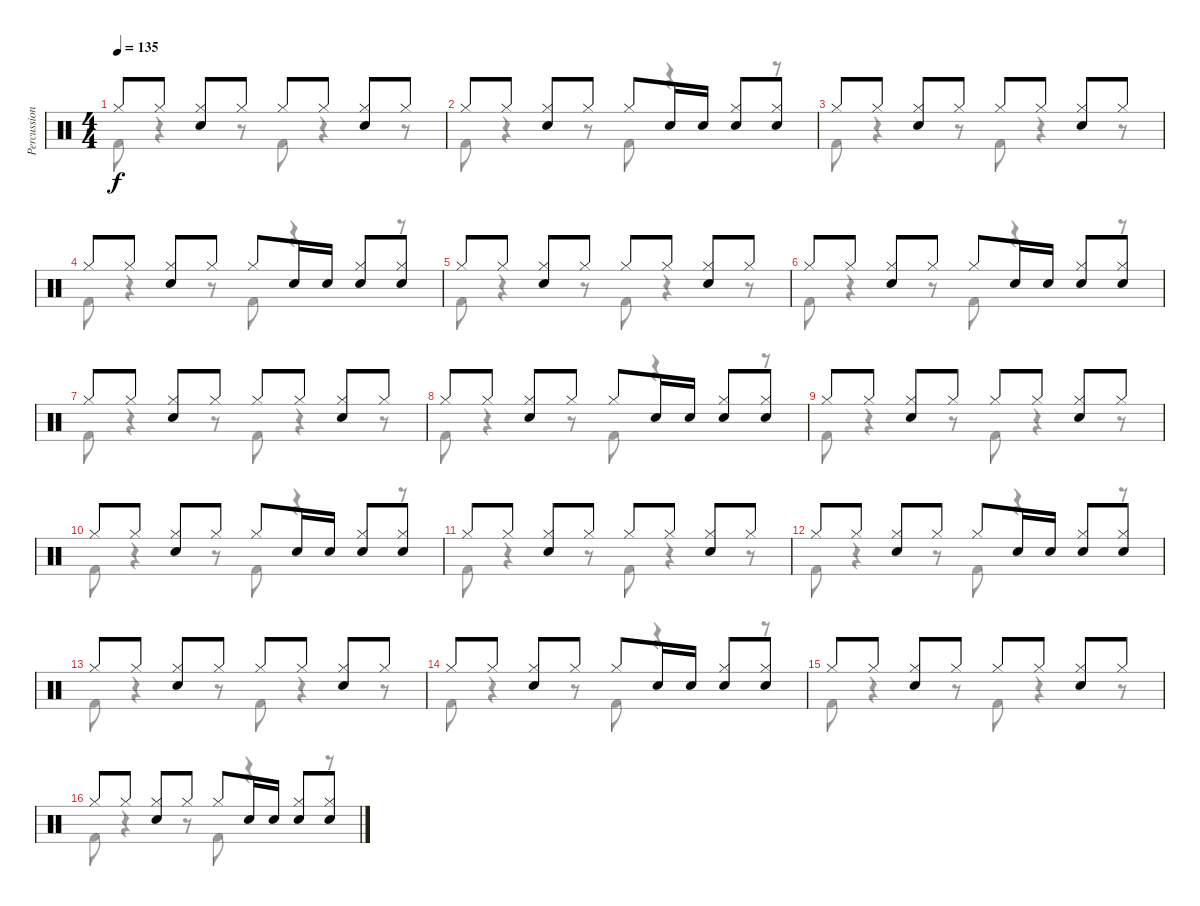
\track ("Percussion" "Percussion") {instrument percussion}
\staff {score}
\articulation defaults
\voice
\ts (4 4)
\tempo 135
\clef neutral
\ks c "Hi-Hat (closed)".8{dy f} "Hi-Hat (closed)".8
("Hi-Hat (closed)" "Snare (hit) 2").8 "Hi-Hat (closed)".8 "Hi-Hat (closed)".8 "Hi-Hat (closed)".8 ("Hi-Hat (closed)" "Snare (hit) 2").8 "Hi-Hat (closed)".8 |
"Hi-Hat (closed)".8 "Hi-Hat (closed)".8 ("Hi-Hat (closed)" "Snare (hit) 2").8 "Hi-Hat (closed)".8 "Hi-Hat (closed)".8 "Snare (hit) 2".16 "Snare (hit) 2".16 ("Hi-Hat (closed)" "Snare (hit) 2").8 ("Hi-Hat (closed)" "Snare (hit) 2").8 |
"Hi-Hat (closed)".8 "Hi-Hat (closed)".8 ("Hi-Hat (closed)" "Snare (hit) 2").8 "Hi-Hat (closed)".8 "Hi-Hat (closed)".8 "Hi-Hat (closed)".8 ("Hi-Hat (closed)" "Snare (hit) 2").8 "Hi-Hat (closed)".8 |
"Hi-Hat (closed)".8 "Hi-Hat (closed)".8 ("Hi-Hat (closed)" "Snare (hit) 2").8 "Hi-Hat (closed)".8 "Hi-Hat (closed)".8 "Snare (hit) 2".16 "Snare (hit) 2".16 ("Hi-Hat (closed)" "Snare (hit) 2").8 ("Hi-Hat (closed)" "Snare (hit) 2").8 |
"Hi-Hat (closed)".8 "Hi-Hat (closed)".8 ("Hi-Hat (closed)" "Snare (hit) 2").8 "Hi-Hat (closed)".8 "Hi-Hat (closed)".8 "Hi-Hat (closed)".8 ("Hi-Hat (closed)" "Snare (hit) 2").8 "Hi-Hat (closed)".8 |
"Hi-Hat (closed)".8 "Hi-Hat (closed)".8 ("Hi-Hat (closed)" "Snare (hit) 2").8 "Hi-Hat (closed)".8 "Hi-Hat (closed)".8 "Snare (hit) 2".16 "Snare (hit) 2".16 ("Hi-Hat (closed)" "Snare (hit) 2").8 ("Hi-Hat (closed)" "Snare (hit) 2").8 |
"Hi-Hat (closed)".8 "Hi-Hat (closed)".8 ("Hi-Hat (closed)" "Snare (hit) 2").8 "Hi-Hat (closed)".8 "Hi-Hat (closed)".8 "Hi-Hat (closed)".8 ("Hi-Hat (closed)" "Snare (hit) 2").8 "Hi-Hat (closed)".8 |
"Hi-Hat (closed)".8 "Hi-Hat (closed)".8 ("Hi-Hat (closed)" "Snare (hit) 2").8 "Hi-Hat (closed)".8 "Hi-Hat (closed)".8 "Snare (hit) 2".16 "Snare (hit) 2".16 ("Hi-Hat (closed)" "Snare (hit) 2").8 ("Hi-Hat (closed)" "Snare (hit) 2").8 |
"Hi-Hat (closed)".8 "Hi-Hat (closed)".8 ("Hi-Hat (closed)" "Snare (hit) 2").8 "Hi-Hat (closed)".8 "Hi-Hat (closed)".8 "Hi-Hat (closed)".8 ("Hi-Hat (closed)" "Snare (hit) 2").8 "Hi-Hat (closed)".8 |
"Hi-Hat (closed)".8 "Hi-Hat (closed)".8 ("Hi-Hat (closed)" "Snare (hit) 2").8 "Hi-Hat (closed)".8 "Hi-Hat (closed)".8 "Snare (hit) 2".16 "Snare (hit) 2".16 ("Hi-Hat (closed)" "Snare (hit) 2").8 ("Hi-Hat (closed)" "Snare (hit) 2").8 |
"Hi-Hat (closed)".8 "Hi-Hat (closed)".8 ("Hi-Hat (closed)" "Snare (hit) 2").8 "Hi-Hat (closed)".8 "Hi-Hat (closed)".8 "Hi-Hat (closed)".8 ("Hi-Hat (closed)" "Snare (hit) 2").8 "Hi-Hat (closed)".8 |
"Hi-Hat (closed)".8 "Hi-Hat (closed)".8 ("Hi-Hat (closed)" "Snare (hit) 2").8 "Hi-Hat (closed)".8 "Hi-Hat (closed)".8 "Snare (hit) 2".16 "Snare (hit) 2".16 ("Hi-Hat (closed)" "Snare (hit) 2").8 ("Hi-Hat (closed)" "Snare (hit) 2").8 |
"Hi-Hat (closed)".8 "Hi-Hat (closed)".8 ("Hi-Hat (closed)" "Snare (hit) 2").8 "Hi-Hat (closed)".8 "Hi-Hat (closed)".8 "Hi-Hat (closed)".8 ("Hi-Hat (closed)" "Snare (hit) 2").8 "Hi-Hat (closed)".8 |
"Hi-Hat (closed)".8 "Hi-Hat (closed)".8 ("Hi-Hat (closed)" "Snare (hit) 2").8 "Hi-Hat (closed)".8 "Hi-Hat (closed)".8 "Snare (hit) 2".16 "Snare (hit) 2".16 ("Hi-Hat (closed)" "Snare (hit) 2").8 ("Hi-Hat (closed)" "Snare (hit) 2").8 |
"Hi-Hat (closed)".8 "Hi-Hat (closed)".8 ("Hi-Hat (closed)" "Snare (hit) 2").8 "Hi-Hat (closed)".8 "Hi-Hat (closed)".8 "Hi-Hat (closed)".8 ("Hi-Hat (closed)" "Snare (hit) 2").8 "Hi-Hat (closed)".8 |
"Hi-Hat (closed)".8 "Hi-Hat (closed)".8 ("Hi-Hat (closed)" "Snare (hit) 2").8 "Hi-Hat (closed)".8 "Hi-Hat (closed)".8 "Snare (hit) 2".16 "Snare (hit) 2".16 ("Hi-Hat (closed)" "Snare (hit) 2").8 ("Hi-Hat (closed)" "Snare (hit) 2").8
\voice
\clef neutral
\ottava regular
\simile none
\ks c "Kick (hit) 2".8{dy f}
r.4 r.8 "Kick (hit) 2".8 r.4 r.8 |
"Kick (hit) 2".8 r.4 r.8 "Kick (hit) 2".8 r.4 r.8 |
"Kick (hit) 2".8 r.4 r.8 "Kick (hit) 2".8 r.4 r.8 |
"Kick (hit) 2".8 r.4 r.8 "Kick (hit) 2".8 r.4 r.8 |
"Kick (hit) 2".8 r.4 r.8 "Kick (hit) 2".8 r.4 r.8 |
"Kick (hit) 2".8 r.4 r.8 "Kick (hit) 2".8 r.4 r.8 |
"Kick (hit) 2".8 r.4 r.8 "Kick (hit) 2".8 r.4 r.8 |
"Kick (hit) 2".8 r.4 r.8 "Kick (hit) 2".8 r.4 r.8 |
"Kick (hit) 2".8 r.4 r.8 "Kick (hit) 2".8 r.4 r.8 |
"Kick (hit) 2".8 r.4 r.8 "Kick (hit) 2".8 r.4 r.8 |
"Kick (hit) 2".8 r.4 r.8 "Kick (hit) 2".8 r.4 r.8 |
"Kick (hit) 2".8 r.4 r.8 "Kick (hit) 2".8 r.4 r.8 |
"Kick (hit) 2".8 r.4 r.8 "Kick (hit) 2".8 r.4 r.8 |
"Kick (hit) 2".8 r.4 r.8 "Kick (hit) 2".8 r.4 r.8 |
"Kick (hit) 2".8 r.4 r.8 "Kick (hit) 2".8 r.4 r.8 |
"Kick (hit) 2".8 r.4 r.8 "Kick (hit) 2".8 r.4 r.8
